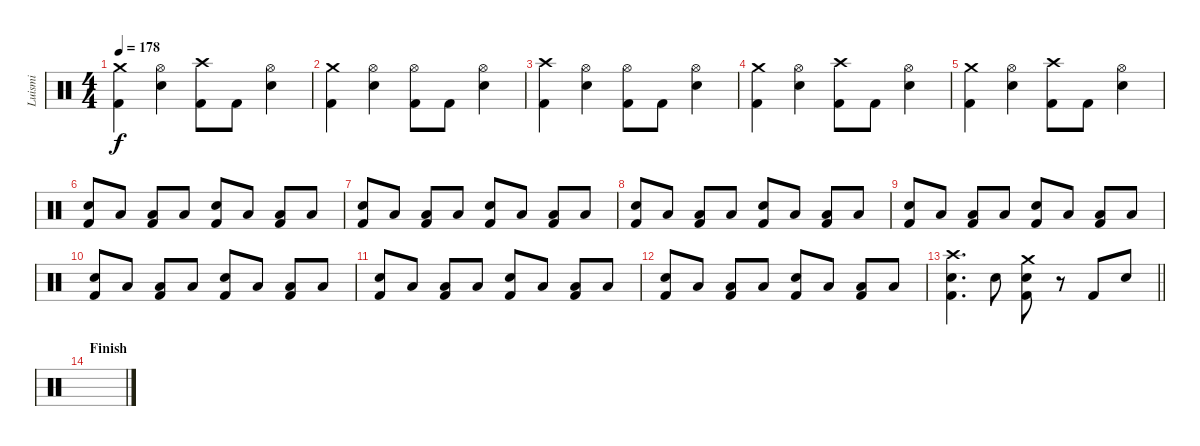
\track ("Luismi" "Luismi") {instrument percussion}
\staff {score}
\articulation defaults
\ts (4 4)
\tempo 178
\clef neutral
\ks c
("Crash medium (hit)" "Kick (hit) 2").4{dy f} ("Hi-Hat (open)" "Snare (hit) 2").4 ("Crash high (hit)" "Kick (hit) 2").8 "Kick (hit) 2".8 ("Hi-Hat (open)" "Snare (hit) 2").4 |
("Crash medium (hit)" "Kick (hit) 2").4 ("Hi-Hat (open)" "Snare (hit) 2").4 ("Hi-Hat (open)" "Kick (hit) 2").8 "Kick (hit) 2".8 ("Hi-Hat (open)" "Snare (hit) 2").4 |
("Crash high (hit)" "Kick (hit) 2").4 ("Hi-Hat (open)" "Snare (hit) 2").4 ("Hi-Hat (open)" "Kick (hit) 2").8 "Kick (hit) 2".8 ("Hi-Hat (open)" "Snare (hit) 2").4 |
("Crash medium (hit)" "Kick (hit) 2").4 ("Hi-Hat (open)" "Snare (hit) 2").4 ("Crash high (hit)" "Kick (hit) 2").8 "Kick (hit) 2".8 ("Hi-Hat (open)" "Snare (hit) 2").4 |
("Crash medium (hit)" "Kick (hit) 2").4 ("Hi-Hat (open)" "Snare (hit) 2").4 ("Crash high (hit)" "Kick (hit) 2").8 "Kick (hit) 2".8 ("Hi-Hat (open)" "Snare (hit) 2").4 |
("Snare (hit) 2" "Kick (hit) 2").8 "Low Tom (hit)".8 ("Low Floor Tom (hit)" "Kick (hit) 2").8 "Low Floor Tom (hit)".8 ("Snare (hit) 2" "Kick (hit) 2").8 "Low Tom (hit)".8 ("Low Floor Tom (hit)" "Kick (hit) 2").8 "Low Floor Tom (hit)".8 |
("Snare (hit) 2" "Kick (hit) 2").8 "Low Tom (hit)".8 ("Low Floor Tom (hit)" "Kick (hit) 2").8 "Low Floor Tom (hit)".8 ("Snare (hit) 2" "Kick (hit) 2").8 "Low Tom (hit)".8 ("Low Floor Tom (hit)" "Kick (hit) 2").8 "Low Floor Tom (hit)".8 |
("Snare (hit) 2" "Kick (hit) 2").8 "Low Tom (hit)".8 ("Low Floor Tom (hit)" "Kick (hit) 2").8 "Low Floor Tom (hit)".8 ("Snare (hit) 2" "Kick (hit) 2").8 "Low Tom (hit)".8 ("Low Floor Tom (hit)" "Kick (hit) 2").8 "Low Floor Tom (hit)".8 |
("Snare (hit) 2" "Kick (hit) 2").8 "Low Tom (hit)".8 ("Low Floor Tom (hit)" "Kick (hit) 2").8 "Low Floor Tom (hit)".8 ("Snare (hit) 2" "Kick (hit) 2").8 "Low Tom (hit)".8 ("Low Floor Tom (hit)" "Kick (hit) 2").8 "Low Floor Tom (hit)".8 |
("Snare (hit) 2" "Kick (hit) 2").8 "Low Tom (hit)".8 ("Low Floor Tom (hit)" "Kick (hit) 2").8 "Low Floor Tom (hit)".8 ("Snare (hit) 2" "Kick (hit) 2").8 "Low Tom (hit)".8 ("Low Floor Tom (hit)" "Kick (hit) 2").8 "Low Floor Tom (hit)".8 |
("Snare (hit) 2" "Kick (hit) 2").8 "Low Tom (hit)".8 ("Low Floor Tom (hit)" "Kick (hit) 2").8 "Low Floor Tom (hit)".8 ("Snare (hit) 2" "Kick (hit) 2").8 "Low Tom (hit)".8 ("Low Floor Tom (hit)" "Kick (hit) 2").8 "Low Floor Tom (hit)".8 |
("Snare (hit) 2" "Kick (hit) 2").8 "Low Tom (hit)".8 ("Low Floor Tom (hit)" "Kick (hit) 2").8 "Low Floor Tom (hit)".8 ("Snare (hit) 2" "Kick (hit) 2").8 "Low Tom (hit)".8 ("Low Floor Tom (hit)" "Kick (hit) 2").8 "Low Floor Tom (hit)".8 |
\barLineRight lightlight
("Crash high (hit)" "Snare (hit) 2" "Kick (hit) 2").4{d} "Snare (hit) 2".8 ("Crash medium (hit)" "Snare (hit) 2" "Kick (hit) 2").8 r.8 "Kick (hit) 2".8 "Snare (hit) 2".8 |
\section ("" "Finish")
